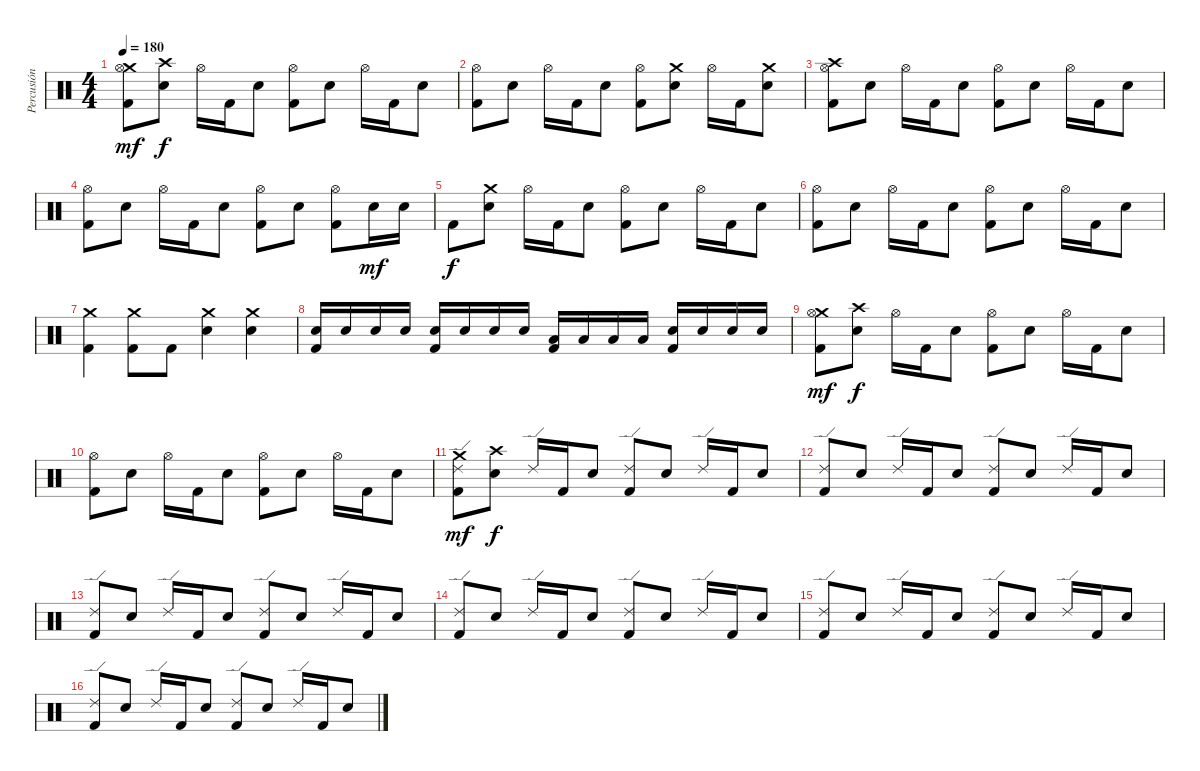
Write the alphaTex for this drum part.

\track ("Percusión" "Percusión") {instrument percussion}
\staff {score}
\articulation defaults
\ts (4 4)
\tempo 180
\clef neutral
\ks c
("Crash medium (hit)" "Hi-Hat (open)" "Kick (hit) 2").8{dy mf} ("Crash high (hit)" "Electric Snare (hit)").8{dy f} "Hi-Hat (open)".16 "Kick (hit) 2".16 "Electric Snare (hit)".8 ("Hi-Hat (open)" "Kick (hit) 2").8 "Electric Snare (hit)".8 "Hi-Hat (open)".16 "Kick (hit) 2".16 "Electric Snare (hit)".8 |
("Hi-Hat (open)" "Kick (hit) 2").8 "Electric Snare (hit)".8 "Hi-Hat (open)".16 "Kick (hit) 2".16 "Electric Snare (hit)".8 ("Hi-Hat (open)" "Kick (hit) 2").8 ("Crash medium (hit)" "Electric Snare (hit)").8 "Hi-Hat (open)".16 "Kick (hit) 2".16 ("Crash medium (hit)" "Electric Snare (hit)").8 |
("Crash high (hit)" "Hi-Hat (open)" "Kick (hit) 2").8 "Electric Snare (hit)".8 "Hi-Hat (open)".16 "Kick (hit) 2".16 "Electric Snare (hit)".8 ("Hi-Hat (open)" "Kick (hit) 2").8 "Electric Snare (hit)".8 "Hi-Hat (open)".16 "Kick (hit) 2".16 "Electric Snare (hit)".8 |
("Hi-Hat (open)" "Kick (hit) 2").8 "Electric Snare (hit)".8 "Hi-Hat (open)".16 "Kick (hit) 2".16 "Electric Snare (hit)".8 ("Hi-Hat (open)" "Kick (hit) 2").8 "Electric Snare (hit)".8 ("Hi-Hat (open)" "Kick (hit) 2").8 "Electric Snare (hit)".16{dy mf} "Electric Snare (hit)".16 |
"Kick (hit) 2".8{dy f} ("Crash medium (hit)" "Electric Snare (hit)").8 "Hi-Hat (open)".16 "Kick (hit) 2".16 "Electric Snare (hit)".8 ("Hi-Hat (open)" "Kick (hit) 2").8 "Electric Snare (hit)".8 "Hi-Hat (open)".16 "Kick (hit) 2".16 "Electric Snare (hit)".8 |
("Hi-Hat (open)" "Kick (hit) 2").8 "Electric Snare (hit)".8 "Hi-Hat (open)".16 "Kick (hit) 2".16 "Electric Snare (hit)".8 ("Hi-Hat (open)" "Kick (hit) 2").8 "Electric Snare (hit)".8 "Hi-Hat (open)".16 "Kick (hit) 2".16 "Electric Snare (hit)".8 |
("Crash medium (hit)" "Kick (hit) 2").4 ("Crash medium (hit)" "Kick (hit) 2").8 "Kick (hit) 2".8 ("Crash medium (hit)" "Electric Snare (hit)").4 ("Crash medium (hit)" "Electric Snare (hit)").4 |
("Electric Snare (hit)" "Kick (hit) 2").16 "Electric Snare (hit)".16 "Electric Snare (hit)".16 "Electric Snare (hit)".16 ("Electric Snare (hit)" "Kick (hit) 2").16 "Electric Snare (hit)".16 "Electric Snare (hit)".16 "Electric Snare (hit)".16 ("Low Tom (hit)" "Kick (hit) 2").16 "Low Tom (hit)".16 "Low Tom (hit)".16 "Low Tom (hit)".16 ("Electric Snare (hit)" "Kick (hit) 2").16 "Electric Snare (hit)".16 "Electric Snare (hit)".16 "Electric Snare (hit)".16 |
("Crash medium (hit)" "Hi-Hat (open)" "Kick (hit) 2").8{dy mf} ("Crash high (hit)" "Electric Snare (hit)").8{dy f} "Hi-Hat (open)".16 "Kick (hit) 2".16 "Electric Snare (hit)".8 ("Hi-Hat (open)" "Kick (hit) 2").8 "Electric Snare (hit)".8 "Hi-Hat (open)".16 "Kick (hit) 2".16 "Electric Snare (hit)".8 |
("Hi-Hat (open)" "Kick (hit) 2").8 "Electric Snare (hit)".8 "Hi-Hat (open)".16 "Kick (hit) 2".16 "Electric Snare (hit)".8 ("Hi-Hat (open)" "Kick (hit) 2").8 "Electric Snare (hit)".8 "Hi-Hat (open)".16 "Kick (hit) 2".16 "Electric Snare (hit)".8 |
("Crash medium (hit)" "Ride (edge) 2" "Kick (hit) 2").8{dy mf} ("Crash high (hit)" "Electric Snare (hit)").8{dy f} "Ride (edge) 2".16 "Kick (hit) 2".16 "Electric Snare (hit)".8 ("Ride (edge) 2" "Kick (hit) 2").8 "Electric Snare (hit)".8 "Ride (edge) 2".16 "Kick (hit) 2".16 "Electric Snare (hit)".8 |
("Ride (edge) 2" "Kick (hit) 2").8 "Electric Snare (hit)".8 "Ride (edge) 2".16 "Kick (hit) 2".16 "Electric Snare (hit)".8 ("Ride (edge) 2" "Kick (hit) 2").8 "Electric Snare (hit)".8 "Ride (edge) 2".16 "Kick (hit) 2".16 "Electric Snare (hit)".8 |
("Ride (edge) 2" "Kick (hit) 2").8 "Electric Snare (hit)".8 "Ride (edge) 2".16 "Kick (hit) 2".16 "Electric Snare (hit)".8 ("Ride (edge) 2" "Kick (hit) 2").8 "Electric Snare (hit)".8 "Ride (edge) 2".16 "Kick (hit) 2".16 "Electric Snare (hit)".8 |
("Ride (edge) 2" "Kick (hit) 2").8 "Electric Snare (hit)".8 "Ride (edge) 2".16 "Kick (hit) 2".16 "Electric Snare (hit)".8 ("Ride (edge) 2" "Kick (hit) 2").8 "Electric Snare (hit)".8 "Ride (edge) 2".16 "Kick (hit) 2".16 "Electric Snare (hit)".8 |
("Ride (edge) 2" "Kick (hit) 2").8 "Electric Snare (hit)".8 "Ride (edge) 2".16 "Kick (hit) 2".16 "Electric Snare (hit)".8 ("Ride (edge) 2" "Kick (hit) 2").8 "Electric Snare (hit)".8 "Ride (edge) 2".16 "Kick (hit) 2".16 "Electric Snare (hit)".8 |
("Ride (edge) 2" "Kick (hit) 2").8 "Electric Snare (hit)".8 "Ride (edge) 2".16 "Kick (hit) 2".16 "Electric Snare (hit)".8 ("Ride (edge) 2" "Kick (hit) 2").8 "Electric Snare (hit)".8 "Ride (edge) 2".16 "Kick (hit) 2".16 "Electric Snare (hit)".8
